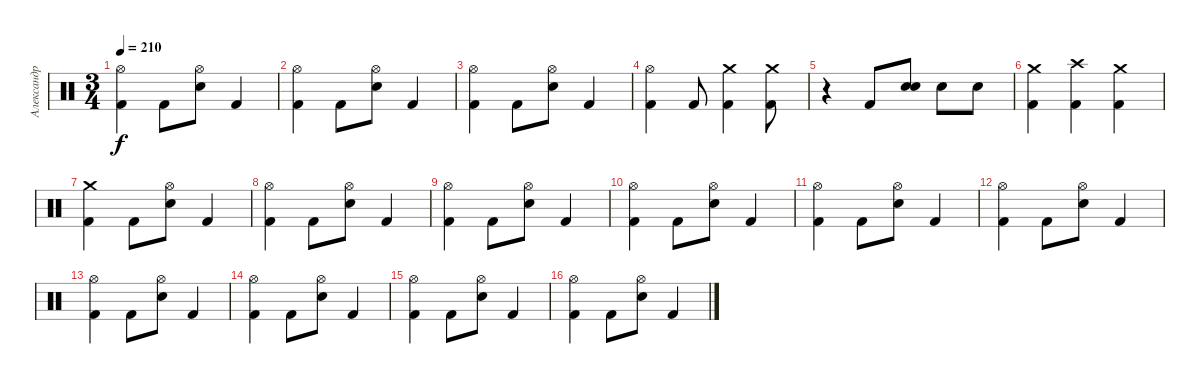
\track ("Александр Манякин" "Александр ") {instrument percussion}
\staff {score}
\articulation defaults
\ts (3 4)
\tempo 210
\clef neutral
\ks c
("Hi-Hat (open)" "Kick (hit) 2").4{dy f} "Kick (hit) 2".8 ("Hi-Hat (open)" "Snare (hit) 2").8 "Kick (hit) 2".4 |
("Hi-Hat (open)" "Kick (hit) 2").4 "Kick (hit) 2".8 ("Hi-Hat (open)" "Snare (hit) 2").8 "Kick (hit) 2".4 |
("Hi-Hat (open)" "Kick (hit) 2").4 "Kick (hit) 2".8 ("Hi-Hat (open)" "Snare (hit) 2").8 "Kick (hit) 2".4 |
("Hi-Hat (open)" "Kick (hit) 2").4 "Kick (hit) 2".8 ("Crash medium (hit)" "Kick (hit) 2").4 ("Crash medium (hit)" "Kick (hit) 2").8 |
r.4 "Kick (hit) 2".8 ("Snare (hit) 2" "Snare (hit) 2").8{bd 120} "Snare (hit) 2".8 "Snare (hit) 2".8 |
("Crash medium (hit)" "Kick (hit) 2").4 ("Crash high (hit)" "Kick (hit) 2").4 ("Crash medium (hit)" "Kick (hit) 2").4 |
("Crash medium (hit)" "Kick (hit) 2").4 "Kick (hit) 2".8 ("Hi-Hat (open)" "Snare (hit) 2").8 "Kick (hit) 2".4 |
("Hi-Hat (open)" "Kick (hit) 2").4 "Kick (hit) 2".8 ("Hi-Hat (open)" "Snare (hit) 2").8 "Kick (hit) 2".4 |
("Hi-Hat (open)" "Kick (hit) 2").4 "Kick (hit) 2".8 ("Hi-Hat (open)" "Snare (hit) 2").8 "Kick (hit) 2".4 |
("Hi-Hat (open)" "Kick (hit) 2").4 "Kick (hit) 2".8 ("Hi-Hat (open)" "Snare (hit) 2").8 "Kick (hit) 2".4 |
("Hi-Hat (open)" "Kick (hit) 2").4 "Kick (hit) 2".8 ("Hi-Hat (open)" "Snare (hit) 2").8 "Kick (hit) 2".4 |
("Hi-Hat (open)" "Kick (hit) 2").4 "Kick (hit) 2".8 ("Hi-Hat (open)" "Snare (hit) 2").8 "Kick (hit) 2".4 |
("Hi-Hat (open)" "Kick (hit) 2").4 "Kick (hit) 2".8 ("Hi-Hat (open)" "Snare (hit) 2").8 "Kick (hit) 2".4 |
("Hi-Hat (open)" "Kick (hit) 2").4 "Kick (hit) 2".8 ("Hi-Hat (open)" "Snare (hit) 2").8 "Kick (hit) 2".4 |
("Hi-Hat (open)" "Kick (hit) 2").4 "Kick (hit) 2".8 ("Hi-Hat (open)" "Snare (hit) 2").8 "Kick (hit) 2".4 |
("Hi-Hat (open)" "Kick (hit) 2").4 "Kick (hit) 2".8 ("Hi-Hat (open)" "Snare (hit) 2").8 "Kick (hit) 2".4
